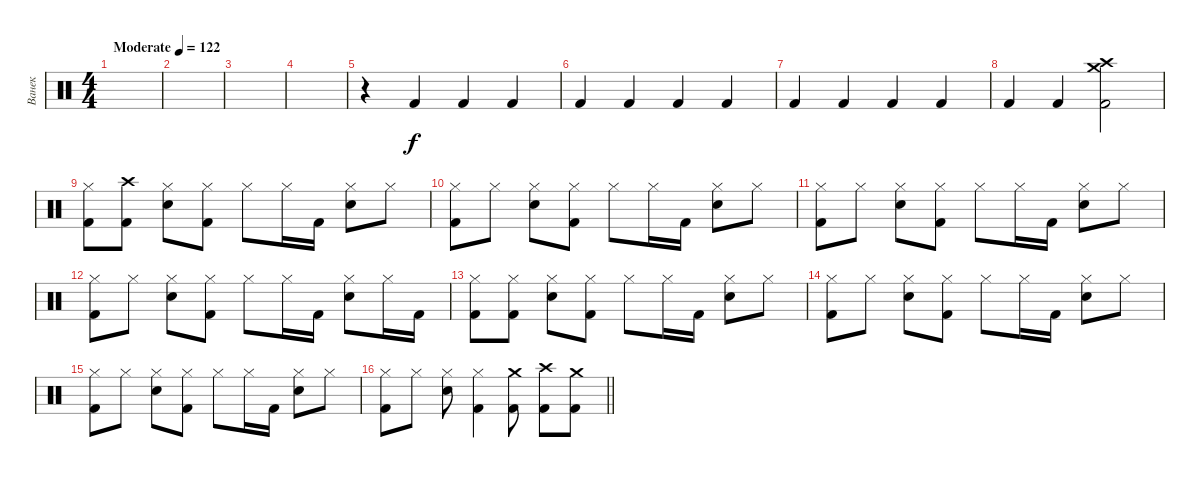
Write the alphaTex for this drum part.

\track ("Ванек" "Ванек") {instrument percussion}
\staff {score}
\articulation defaults
\ts (4 4)
\tempo (122 "Moderate")
\clef neutral
\ks c
|
|
|
|
r.4 "Kick (hit) 2".4 "Kick (hit) 2".4 "Kick (hit) 2".4 |
"Kick (hit) 2".4 "Kick (hit) 2".4 "Kick (hit) 2".4 "Kick (hit) 2".4 |
"Kick (hit) 2".4 "Kick (hit) 2".4 "Kick (hit) 2".4 "Kick (hit) 2".4 |
"Kick (hit) 2".4 "Kick (hit) 2".4 ("Crash medium (hit)" "Crash high (hit)" "Kick (hit) 2").2 |
("Hi-Hat (closed)" "Kick (hit) 2").8 ("Crash high (hit)" "Kick (hit) 2").8 ("Hi-Hat (closed)" "Electric Snare (hit)").8 ("Hi-Hat (closed)" "Kick (hit) 2").8 "Hi-Hat (closed)".8 "Hi-Hat (closed)".16 "Kick (hit) 2".16 ("Hi-Hat (closed)" "Electric Snare (hit)").8 "Hi-Hat (closed)".8 |
("Hi-Hat (closed)" "Kick (hit) 2").8 "Hi-Hat (closed)".8 ("Hi-Hat (closed)" "Electric Snare (hit)").8 ("Hi-Hat (closed)" "Kick (hit) 2").8 "Hi-Hat (closed)".8 "Hi-Hat (closed)".16 "Kick (hit) 2".16 ("Hi-Hat (closed)" "Electric Snare (hit)").8 "Hi-Hat (closed)".8 |
("Hi-Hat (closed)" "Kick (hit) 2").8 "Hi-Hat (closed)".8 ("Hi-Hat (closed)" "Electric Snare (hit)").8 ("Hi-Hat (closed)" "Kick (hit) 2").8 "Hi-Hat (closed)".8 "Hi-Hat (closed)".16 "Kick (hit) 2".16 ("Hi-Hat (closed)" "Electric Snare (hit)").8 "Hi-Hat (closed)".8 |
("Hi-Hat (closed)" "Kick (hit) 2").8 "Hi-Hat (closed)".8 ("Hi-Hat (closed)" "Electric Snare (hit)").8 ("Hi-Hat (closed)" "Kick (hit) 2").8 "Hi-Hat (closed)".8 "Hi-Hat (closed)".16 "Kick (hit) 2".16 ("Hi-Hat (closed)" "Electric Snare (hit)").8 "Hi-Hat (closed)".16 "Kick (hit) 2".16 |
("Hi-Hat (closed)" "Kick (hit) 2").8 ("Hi-Hat (closed)" "Kick (hit) 2").8 ("Hi-Hat (closed)" "Electric Snare (hit)").8 ("Hi-Hat (closed)" "Kick (hit) 2").8 "Hi-Hat (closed)".8 "Hi-Hat (closed)".16 "Kick (hit) 2".16 ("Hi-Hat (closed)" "Electric Snare (hit)").8 "Hi-Hat (closed)".8 |
("Hi-Hat (closed)" "Kick (hit) 2").8 "Hi-Hat (closed)".8 ("Hi-Hat (closed)" "Electric Snare (hit)").8 ("Hi-Hat (closed)" "Kick (hit) 2").8 "Hi-Hat (closed)".8 "Hi-Hat (closed)".16 "Kick (hit) 2".16 ("Hi-Hat (closed)" "Electric Snare (hit)").8 "Hi-Hat (closed)".8 |
("Hi-Hat (closed)" "Kick (hit) 2").8 "Hi-Hat (closed)".8 ("Hi-Hat (closed)" "Electric Snare (hit)").8 ("Hi-Hat (closed)" "Kick (hit) 2").8 "Hi-Hat (closed)".8 "Hi-Hat (closed)".16 "Kick (hit) 2".16 ("Hi-Hat (closed)" "Electric Snare (hit)").8 "Hi-Hat (closed)".8 |
\barLineRight lightlight
("Hi-Hat (closed)" "Kick (hit) 2").8 "Hi-Hat (closed)".8 ("Hi-Hat (closed)" "Electric Snare (hit)").8 ("Hi-Hat (closed)" "Kick (hit) 2").4 ("Crash medium (hit)" "Kick (hit) 2").8 ("Crash high (hit)" "Kick (hit) 2").8 ("Crash medium (hit)" "Kick (hit) 2").8
